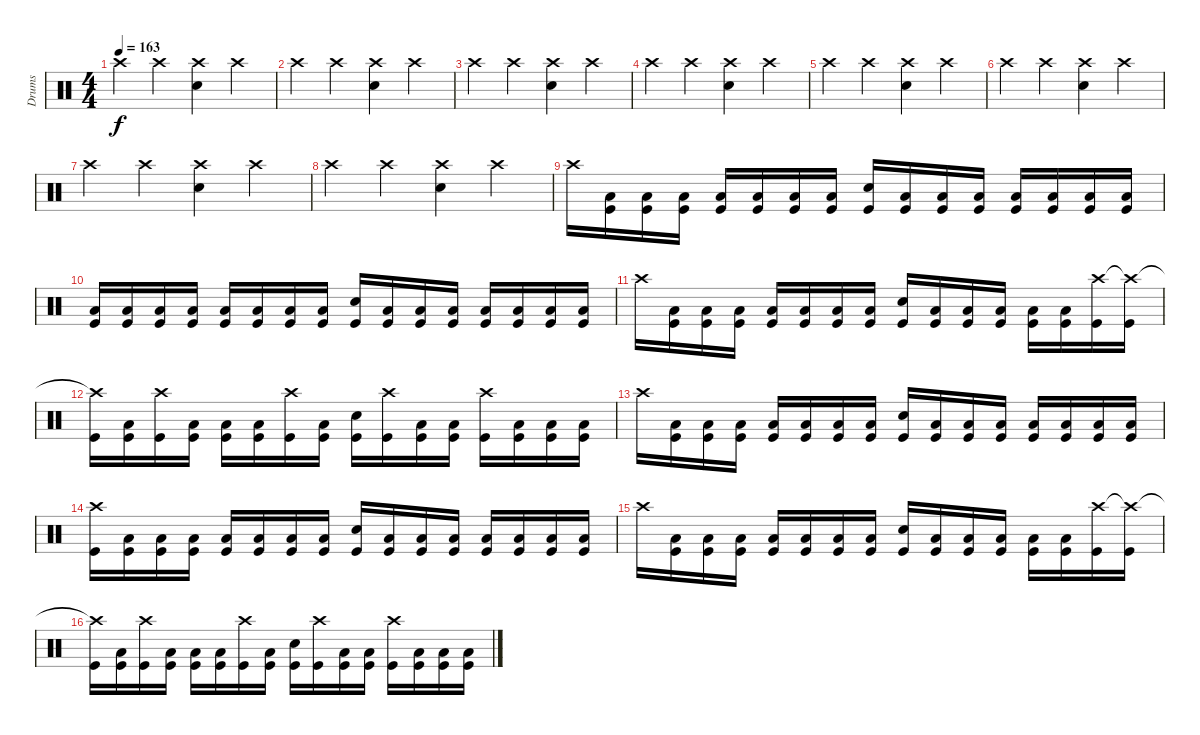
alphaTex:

\track ("Drums" "Drums") {instrument percussion}
\staff {score}
\articulation defaults
\ts (4 4)
\tempo 163
\clef neutral
\ks c "Crash high (hit)".4{dy f} "Crash high (hit)".4
("Crash high (hit)" "Snare (hit) 2").4 "Crash high (hit)".4 |
"Crash high (hit)".4 "Crash high (hit)".4 ("Crash high (hit)" "Snare (hit) 2").4 "Crash high (hit)".4 |
"Crash high (hit)".4 "Crash high (hit)".4 ("Crash high (hit)" "Snare (hit) 2").4 "Crash high (hit)".4 |
"Crash high (hit)".4 "Crash high (hit)".4 ("Crash high (hit)" "Snare (hit) 2").4 "Crash high (hit)".4 |
"Crash high (hit)".4 "Crash high (hit)".4 ("Crash high (hit)" "Snare (hit) 2").4 "Crash high (hit)".4 |
"Crash high (hit)".4 "Crash high (hit)".4 ("Crash high (hit)" "Snare (hit) 2").4 "Crash high (hit)".4 |
"Crash high (hit)".4 "Crash high (hit)".4 ("Crash high (hit)" "Snare (hit) 2").4 "Crash high (hit)".4 |
"Crash high (hit)".4 "Crash high (hit)".4 ("Crash high (hit)" "Snare (hit) 2").4 "Crash high (hit)".4 |
"Crash high (hit)".16 ("Low Tom (hit)" "Kick (hit)").16 ("Low Tom (hit)" "Kick (hit)").16 ("Low Tom (hit)" "Kick (hit)").16 ("Low Tom (hit)" "Kick (hit)").16 ("Low Tom (hit)" "Kick (hit)").16 ("Low Tom (hit)" "Kick (hit)").16 ("Low Tom (hit)" "Kick (hit)").16 ("Snare (hit) 2" "Kick (hit)").16 ("Low Tom (hit)" "Kick (hit)").16 ("Low Tom (hit)" "Kick (hit)").16 ("Low Tom (hit)" "Kick (hit)").16 ("Low Tom (hit)" "Kick (hit)").16 ("Low Tom (hit)" "Kick (hit)").16 ("Low Tom (hit)" "Kick (hit)").16 ("Low Tom (hit)" "Kick (hit)").16 |
("Low Tom (hit)" "Kick (hit)").16 ("Low Tom (hit)" "Kick (hit)").16 ("Low Tom (hit)" "Kick (hit)").16 ("Low Tom (hit)" "Kick (hit)").16 ("Low Tom (hit)" "Kick (hit)").16 ("Low Tom (hit)" "Kick (hit)").16 ("Low Tom (hit)" "Kick (hit)").16 ("Low Tom (hit)" "Kick (hit)").16 ("Snare (hit) 2" "Kick (hit)").16 ("Low Tom (hit)" "Kick (hit)").16 ("Low Tom (hit)" "Kick (hit)").16 ("Low Tom (hit)" "Kick (hit)").16 ("Low Tom (hit)" "Kick (hit)").16 ("Low Tom (hit)" "Kick (hit)").16 ("Low Tom (hit)" "Kick (hit)").16 ("Low Tom (hit)" "Kick (hit)").16 |
"Crash high (hit)".16 ("Low Tom (hit)" "Kick (hit)").16 ("Low Tom (hit)" "Kick (hit)").16 ("Low Tom (hit)" "Kick (hit)").16 ("Low Tom (hit)" "Kick (hit)").16 ("Low Tom (hit)" "Kick (hit)").16 ("Low Tom (hit)" "Kick (hit)").16 ("Low Tom (hit)" "Kick (hit)").16 ("Snare (hit) 2" "Kick (hit)").16 ("Low Tom (hit)" "Kick (hit)").16 ("Low Tom (hit)" "Kick (hit)").16 ("Low Tom (hit)" "Kick (hit)").16 ("Low Tom (hit)" "Kick (hit)").16 ("Low Tom (hit)" "Kick (hit)").16 ("Crash high (hit)" "Kick (hit)").16 ("Crash high (hit)"{t} "Kick (hit)").16 |
("Crash high (hit)"{t} "Kick (hit)").16 ("Low Tom (hit)" "Kick (hit)").16 ("Crash high (hit)" "Kick (hit)").16 ("Low Tom (hit)" "Kick (hit)").16 ("Low Tom (hit)" "Kick (hit)").16 ("Low Tom (hit)" "Kick (hit)").16 ("Crash high (hit)" "Kick (hit)").16 ("Low Tom (hit)" "Kick (hit)").16 ("Snare (hit) 2" "Kick (hit)").16 ("Crash high (hit)" "Kick (hit)").16 ("Low Tom (hit)" "Kick (hit)").16 ("Low Tom (hit)" "Kick (hit)").16 ("Crash high (hit)" "Kick (hit)").16 ("Low Tom (hit)" "Kick (hit)").16 ("Low Tom (hit)" "Kick (hit)").16 ("Low Tom (hit)" "Kick (hit)").16 |
"Crash high (hit)".16 ("Low Tom (hit)" "Kick (hit)").16 ("Low Tom (hit)" "Kick (hit)").16 ("Low Tom (hit)" "Kick (hit)").16 ("Low Tom (hit)" "Kick (hit)").16 ("Low Tom (hit)" "Kick (hit)").16 ("Low Tom (hit)" "Kick (hit)").16 ("Low Tom (hit)" "Kick (hit)").16 ("Snare (hit) 2" "Kick (hit)").16 ("Low Tom (hit)" "Kick (hit)").16 ("Low Tom (hit)" "Kick (hit)").16 ("Low Tom (hit)" "Kick (hit)").16 ("Low Tom (hit)" "Kick (hit)").16 ("Low Tom (hit)" "Kick (hit)").16 ("Low Tom (hit)" "Kick (hit)").16 ("Low Tom (hit)" "Kick (hit)").16 |
("Crash high (hit)" "Kick (hit)").16 ("Low Tom (hit)" "Kick (hit)").16 ("Low Tom (hit)" "Kick (hit)").16 ("Low Tom (hit)" "Kick (hit)").16 ("Low Tom (hit)" "Kick (hit)").16 ("Low Tom (hit)" "Kick (hit)").16 ("Low Tom (hit)" "Kick (hit)").16 ("Low Tom (hit)" "Kick (hit)").16 ("Snare (hit) 2" "Kick (hit)").16 ("Low Tom (hit)" "Kick (hit)").16 ("Low Tom (hit)" "Kick (hit)").16 ("Low Tom (hit)" "Kick (hit)").16 ("Low Tom (hit)" "Kick (hit)").16 ("Low Tom (hit)" "Kick (hit)").16 ("Low Tom (hit)" "Kick (hit)").16 ("Low Tom (hit)" "Kick (hit)").16 |
"Crash high (hit)".16 ("Low Tom (hit)" "Kick (hit)").16 ("Low Tom (hit)" "Kick (hit)").16 ("Low Tom (hit)" "Kick (hit)").16 ("Low Tom (hit)" "Kick (hit)").16 ("Low Tom (hit)" "Kick (hit)").16 ("Low Tom (hit)" "Kick (hit)").16 ("Low Tom (hit)" "Kick (hit)").16 ("Snare (hit) 2" "Kick (hit)").16 ("Low Tom (hit)" "Kick (hit)").16 ("Low Tom (hit)" "Kick (hit)").16 ("Low Tom (hit)" "Kick (hit)").16 ("Low Tom (hit)" "Kick (hit)").16 ("Low Tom (hit)" "Kick (hit)").16 ("Crash high (hit)" "Kick (hit)").16 ("Crash high (hit)"{t} "Kick (hit)").16 |
("Crash high (hit)"{t} "Kick (hit)").16 ("Low Tom (hit)" "Kick (hit)").16 ("Crash high (hit)" "Kick (hit)").16 ("Low Tom (hit)" "Kick (hit)").16 ("Low Tom (hit)" "Kick (hit)").16 ("Low Tom (hit)" "Kick (hit)").16 ("Crash high (hit)" "Kick (hit)").16 ("Low Tom (hit)" "Kick (hit)").16 ("Snare (hit) 2" "Kick (hit)").16 ("Crash high (hit)" "Kick (hit)").16 ("Low Tom (hit)" "Kick (hit)").16 ("Low Tom (hit)" "Kick (hit)").16 ("Crash high (hit)" "Kick (hit)").16 ("Low Tom (hit)" "Kick (hit)").16 ("Low Tom (hit)" "Kick (hit)").16 ("Low Tom (hit)" "Kick (hit)").16
